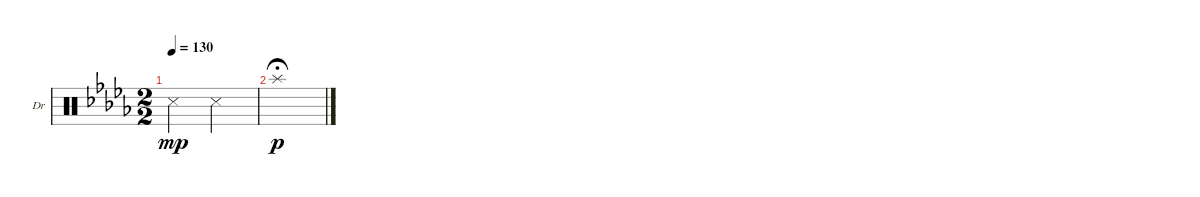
\defaultSystemsLayout 4
\bracketExtendMode nobrackets
\firstSystemTrackNameOrientation horizontal
\otherSystemsTrackNameOrientation horizontal
\chordDiagramsInScore
\track ("Drums" "Dr") {instrument percussion}
\staff {score}
\articulation defaults
\ts (2 2)
\tempo 130
\clef neutral
\ks db "Snare (side stick) 3".2{dy mp} "Snare (side stick) 3".2
|
"Splash (hit)".1{dy p fermata (medium 0.52)}
